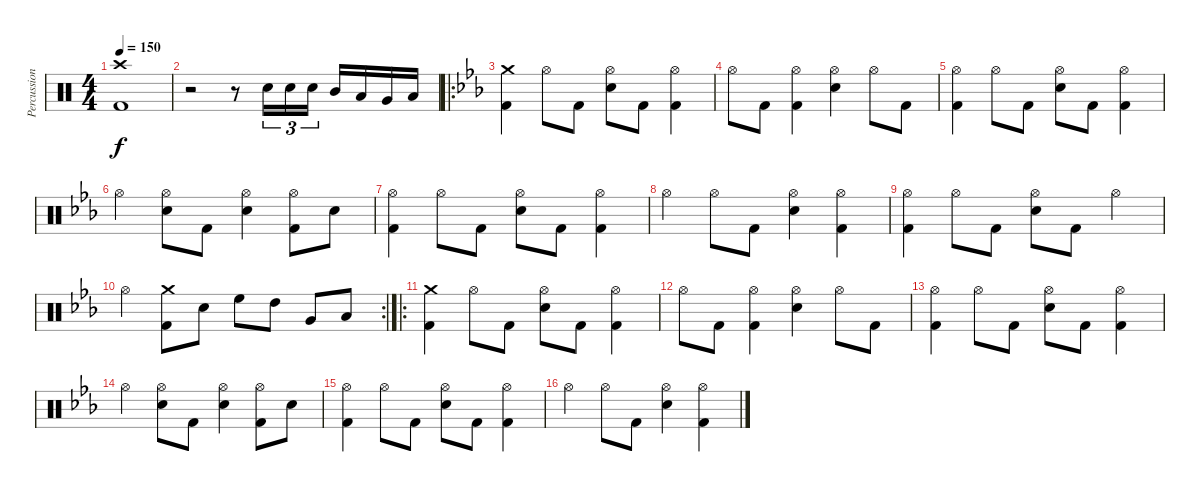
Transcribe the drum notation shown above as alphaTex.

\track ("Percussion" "Percussion") {instrument percussion}
\staff {score}
\articulation defaults
\ts (4 4)
\tempo 150
\clef neutral
\ks aminor
("Crash high (hit)" "Kick (hit) 2").1{dy f} |
r.2 r.8 "Electric Snare (hit)".16{tu (3 2)} "Electric Snare (hit)".16{tu (3 2)} "Electric Snare (hit)".16{tu (3 2)} "Mid Tom (hit)".16 "Low Tom (hit)".16 "Very Low Tom (hit)".16 "Low Floor Tom (hit)".16 |
\ro
\ks cminor
("Crash medium (hit)" "Kick (hit) 2").4 "Hi-Hat (open)".8 "Kick (hit) 2".8 ("Hi-Hat (open)" "Electric Snare (hit)").8 "Kick (hit) 2".8 ("Hi-Hat (open)" "Kick (hit) 2").4 |
"Hi-Hat (open)".8 "Kick (hit) 2".8 ("Hi-Hat (open)" "Kick (hit) 2").4 ("Hi-Hat (open)" "Electric Snare (hit)").4 "Hi-Hat (open)".8 "Kick (hit) 2".8 |
("Hi-Hat (open)" "Kick (hit) 2").4 "Hi-Hat (open)".8 "Kick (hit) 2".8 ("Hi-Hat (open)" "Electric Snare (hit)").8 "Kick (hit) 2".8 ("Hi-Hat (open)" "Kick (hit) 2").4 |
"Hi-Hat (open)".4 ("Hi-Hat (open)" "Electric Snare (hit)").8 "Kick (hit) 2".8 ("Hi-Hat (open)" "Electric Snare (hit)").4 ("Hi-Hat (open)" "Kick (hit) 2").8 "Electric Snare (hit)".8 |
("Hi-Hat (open)" "Kick (hit) 2").4 "Hi-Hat (open)".8 "Kick (hit) 2".8 ("Hi-Hat (open)" "Electric Snare (hit)").8 "Kick (hit) 2".8 ("Hi-Hat (open)" "Kick (hit) 2").4 |
"Hi-Hat (open)".4 "Hi-Hat (open)".8 "Kick (hit) 2".8 ("Hi-Hat (open)" "Electric Snare (hit)").4 ("Hi-Hat (open)" "Kick (hit) 2").4 |
("Hi-Hat (open)" "Kick (hit) 2").4 "Hi-Hat (open)".8 "Kick (hit) 2".8 ("Hi-Hat (open)" "Electric Snare (hit)").8 "Kick (hit) 2".8 "Hi-Hat (open)".4 |
\rc 2 "Hi-Hat (open)".4
("Crash medium (hit)" "Kick (hit) 2").8 "Electric Snare (hit)".8 "High Floor Tom (hit)".8 "High Tom (hit)".8 "Very Low Tom (hit)".8 "Low Floor Tom (hit)".8 |
\ro
("Crash medium (hit)" "Kick (hit) 2").4 "Hi-Hat (open)".8 "Kick (hit) 2".8 ("Hi-Hat (open)" "Electric Snare (hit)").8 "Kick (hit) 2".8 ("Hi-Hat (open)" "Kick (hit) 2").4 |
"Hi-Hat (open)".8 "Kick (hit) 2".8 ("Hi-Hat (open)" "Kick (hit) 2").4 ("Hi-Hat (open)" "Electric Snare (hit)").4 "Hi-Hat (open)".8 "Kick (hit) 2".8 |
("Hi-Hat (open)" "Kick (hit) 2").4 "Hi-Hat (open)".8 "Kick (hit) 2".8 ("Hi-Hat (open)" "Electric Snare (hit)").8 "Kick (hit) 2".8 ("Hi-Hat (open)" "Kick (hit) 2").4 |
"Hi-Hat (open)".4 ("Hi-Hat (open)" "Electric Snare (hit)").8 "Kick (hit) 2".8 ("Hi-Hat (open)" "Electric Snare (hit)").4 ("Hi-Hat (open)" "Kick (hit) 2").8 "Electric Snare (hit)".8 |
("Hi-Hat (open)" "Kick (hit) 2").4 "Hi-Hat (open)".8 "Kick (hit) 2".8 ("Hi-Hat (open)" "Electric Snare (hit)").8 "Kick (hit) 2".8 ("Hi-Hat (open)" "Kick (hit) 2").4 |
"Hi-Hat (open)".4 "Hi-Hat (open)".8 "Kick (hit) 2".8 ("Hi-Hat (open)" "Electric Snare (hit)").4 ("Hi-Hat (open)" "Kick (hit) 2").4
